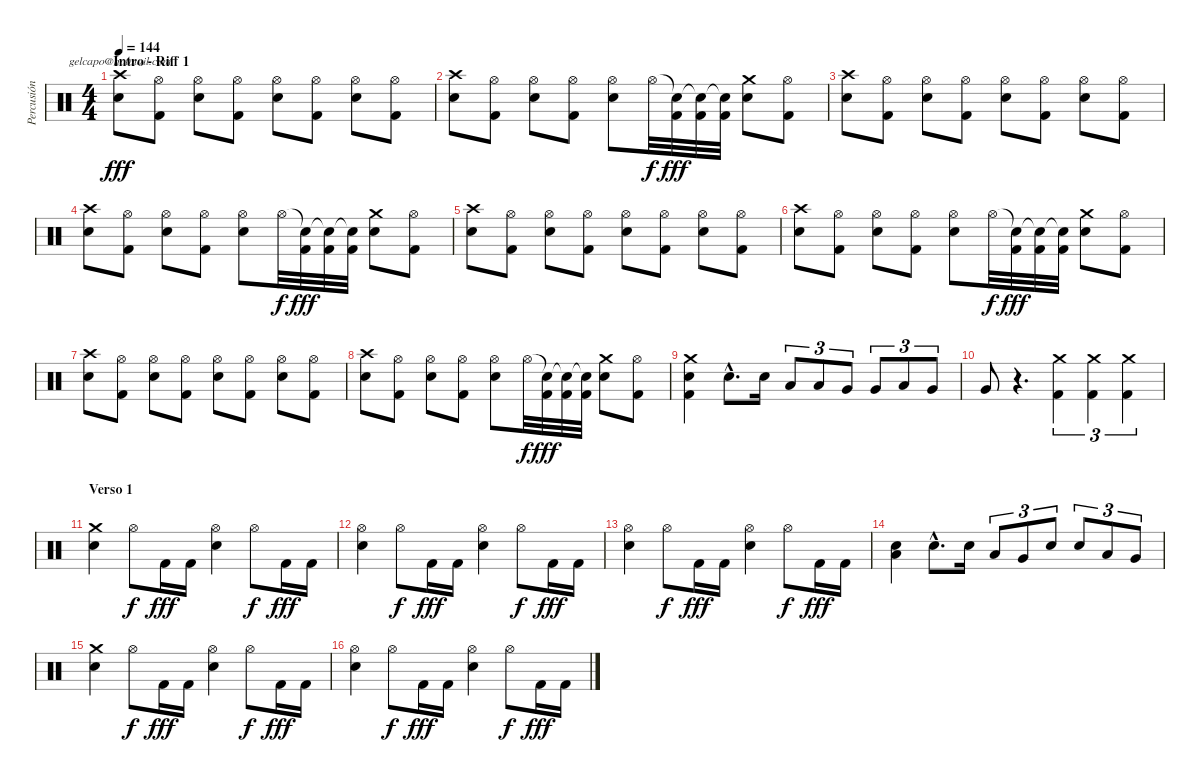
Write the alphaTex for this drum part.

\track ("Percusión" "Percusión") {instrument percussion}
\staff {score}
\articulation defaults
\chord ("gelcapo@hotmail.com") {firstfret 0}
\ts (4 4)
\section ("" "Intro - Riff 1")
\tempo 144
\clef neutral
\ks c
("Crash high (hit)" "Snare (hit) 2").8{ch "gelcapo@hotmail.com" dy fff} ("Hi-Hat (open)" "Kick (hit) 2").8 ("Hi-Hat (open)" "Snare (hit) 2").8 ("Hi-Hat (open)" "Kick (hit) 2").8 ("Hi-Hat (open)" "Snare (hit) 2").8 ("Hi-Hat (open)" "Kick (hit) 2").8 ("Hi-Hat (open)" "Snare (hit) 2").8 ("Hi-Hat (open)" "Kick (hit) 2").8 |
("Crash high (hit)" "Snare (hit) 2").8 ("Hi-Hat (open)" "Kick (hit) 2").8 ("Hi-Hat (open)" "Snare (hit) 2").8 ("Hi-Hat (open)" "Kick (hit) 2").8 ("Hi-Hat (open)" "Snare (hit) 2").8 "Hi-Hat (open)".32{dy f} ("Snare (hit)"{t} "Kick (hit) 2").32{dy fff} ("Snare (hit)"{t} "Kick (hit) 2").32 ("Snare (hit)"{t} "Kick (hit) 2").32 ("Crash medium (hit)" "Snare (hit) 2").8 ("Hi-Hat (open)" "Kick (hit) 2").8 |
("Crash high (hit)" "Snare (hit) 2").8 ("Hi-Hat (open)" "Kick (hit) 2").8 ("Hi-Hat (open)" "Snare (hit) 2").8 ("Hi-Hat (open)" "Kick (hit) 2").8 ("Hi-Hat (open)" "Snare (hit) 2").8 ("Hi-Hat (open)" "Kick (hit) 2").8 ("Hi-Hat (open)" "Snare (hit) 2").8 ("Hi-Hat (open)" "Kick (hit) 2").8 |
("Crash high (hit)" "Snare (hit) 2").8 ("Hi-Hat (open)" "Kick (hit) 2").8 ("Hi-Hat (open)" "Snare (hit) 2").8 ("Hi-Hat (open)" "Kick (hit) 2").8 ("Hi-Hat (open)" "Snare (hit) 2").8 "Hi-Hat (open)".32{dy f} ("Snare (hit)"{t} "Kick (hit) 2").32{dy fff} ("Snare (hit)"{t} "Kick (hit) 2").32 ("Snare (hit)"{t} "Kick (hit) 2").32 ("Crash medium (hit)" "Snare (hit) 2").8 ("Hi-Hat (open)" "Kick (hit) 2").8 |
("Crash high (hit)" "Snare (hit) 2").8 ("Hi-Hat (open)" "Kick (hit) 2").8 ("Hi-Hat (open)" "Snare (hit) 2").8 ("Hi-Hat (open)" "Kick (hit) 2").8 ("Hi-Hat (open)" "Snare (hit) 2").8 ("Hi-Hat (open)" "Kick (hit) 2").8 ("Hi-Hat (open)" "Snare (hit) 2").8 ("Hi-Hat (open)" "Kick (hit) 2").8 |
("Crash high (hit)" "Snare (hit) 2").8 ("Hi-Hat (open)" "Kick (hit) 2").8 ("Hi-Hat (open)" "Snare (hit) 2").8 ("Hi-Hat (open)" "Kick (hit) 2").8 ("Hi-Hat (open)" "Snare (hit) 2").8 "Hi-Hat (open)".32{dy f} ("Snare (hit)"{t} "Kick (hit) 2").32{dy fff} ("Snare (hit)"{t} "Kick (hit) 2").32 ("Snare (hit)"{t} "Kick (hit) 2").32 ("Crash medium (hit)" "Snare (hit) 2").8 ("Hi-Hat (open)" "Kick (hit) 2").8 |
("Crash high (hit)" "Snare (hit) 2").8 ("Hi-Hat (open)" "Kick (hit) 2").8 ("Hi-Hat (open)" "Snare (hit) 2").8 ("Hi-Hat (open)" "Kick (hit) 2").8 ("Hi-Hat (open)" "Snare (hit) 2").8 ("Hi-Hat (open)" "Kick (hit) 2").8 ("Hi-Hat (open)" "Snare (hit) 2").8 ("Hi-Hat (open)" "Kick (hit) 2").8 |
("Crash high (hit)" "Snare (hit) 2").8 ("Hi-Hat (open)" "Kick (hit) 2").8 ("Hi-Hat (open)" "Snare (hit) 2").8 ("Hi-Hat (open)" "Kick (hit) 2").8 ("Hi-Hat (open)" "Snare (hit) 2").8 "Hi-Hat (open)".32{dy f} ("Snare (hit)"{t} "Kick (hit) 2").32{dy fff} ("Snare (hit)"{t} "Kick (hit) 2").32 ("Snare (hit)"{t} "Kick (hit) 2").32 ("Crash medium (hit)" "Snare (hit) 2").8 ("Hi-Hat (open)" "Kick (hit) 2").8 |
("Crash medium (hit)" "Snare (hit) 2" "Kick (hit) 2").4 "Snare (hit) 2"{hac}.8{d} "Snare (hit) 2".16 "Low Tom (hit)".8{tu (3 2)} "Low Tom (hit)".8{tu (3 2)} "Very Low Tom (hit)".8{tu (3 2)} "Very Low Tom (hit)".8{tu (3 2)} "Low Tom (hit)".8{tu (3 2)} "Very Low Tom (hit)".8{tu (3 2)} |
"Very Low Tom (hit)".8 r.4{d} ("Crash medium (hit)" "Kick (hit) 2").4{tu (3 2)} ("Crash medium (hit)" "Kick (hit) 2").4{tu (3 2)} ("Crash medium (hit)" "Kick (hit) 2").4{tu (3 2)} |
\section ("" "Verso 1")
("Crash medium (hit)" "Snare (hit) 2").4 "Hi-Hat (open)".8{dy f} "Kick (hit) 2".16{dy fff} "Kick (hit) 2".16 ("Hi-Hat (open)" "Snare (hit) 2").4 "Hi-Hat (open)".8{dy f} "Kick (hit) 2".16{dy fff} "Kick (hit) 2".16 |
("Hi-Hat (open)" "Snare (hit) 2").4 "Hi-Hat (open)".8{dy f} "Kick (hit) 2".16{dy fff} "Kick (hit) 2".16 ("Hi-Hat (open)" "Snare (hit) 2").4 "Hi-Hat (open)".8{dy f} "Kick (hit) 2".16{dy fff} "Kick (hit) 2".16 |
("Hi-Hat (open)" "Snare (hit) 2").4 "Hi-Hat (open)".8{dy f} "Kick (hit) 2".16{dy fff} "Kick (hit) 2".16 ("Hi-Hat (open)" "Snare (hit) 2").4 "Hi-Hat (open)".8{dy f} "Kick (hit) 2".16{dy fff} "Kick (hit) 2".16 |
("Low Tom (hit)" "Snare (hit) 2").4 "Snare (hit) 2"{hac}.8{d} "Snare (hit) 2".16 "Low Tom (hit)".8{tu (3 2)} "Very Low Tom (hit)".8{tu (3 2)} "Snare (hit) 2".8{tu (3 2)} "Snare (hit) 2".8{tu (3 2)} "Low Tom (hit)".8{tu (3 2)} "Very Low Tom (hit)".8{tu (3 2)} |
("Crash medium (hit)" "Snare (hit) 2").4 "Hi-Hat (open)".8{dy f} "Kick (hit) 2".16{dy fff} "Kick (hit) 2".16 ("Hi-Hat (open)" "Snare (hit) 2").4 "Hi-Hat (open)".8{dy f} "Kick (hit) 2".16{dy fff} "Kick (hit) 2".16 |
("Hi-Hat (open)" "Snare (hit) 2").4 "Hi-Hat (open)".8{dy f} "Kick (hit) 2".16{dy fff} "Kick (hit) 2".16 ("Hi-Hat (open)" "Snare (hit) 2").4 "Hi-Hat (open)".8{dy f} "Kick (hit) 2".16{dy fff} "Kick (hit) 2".16
